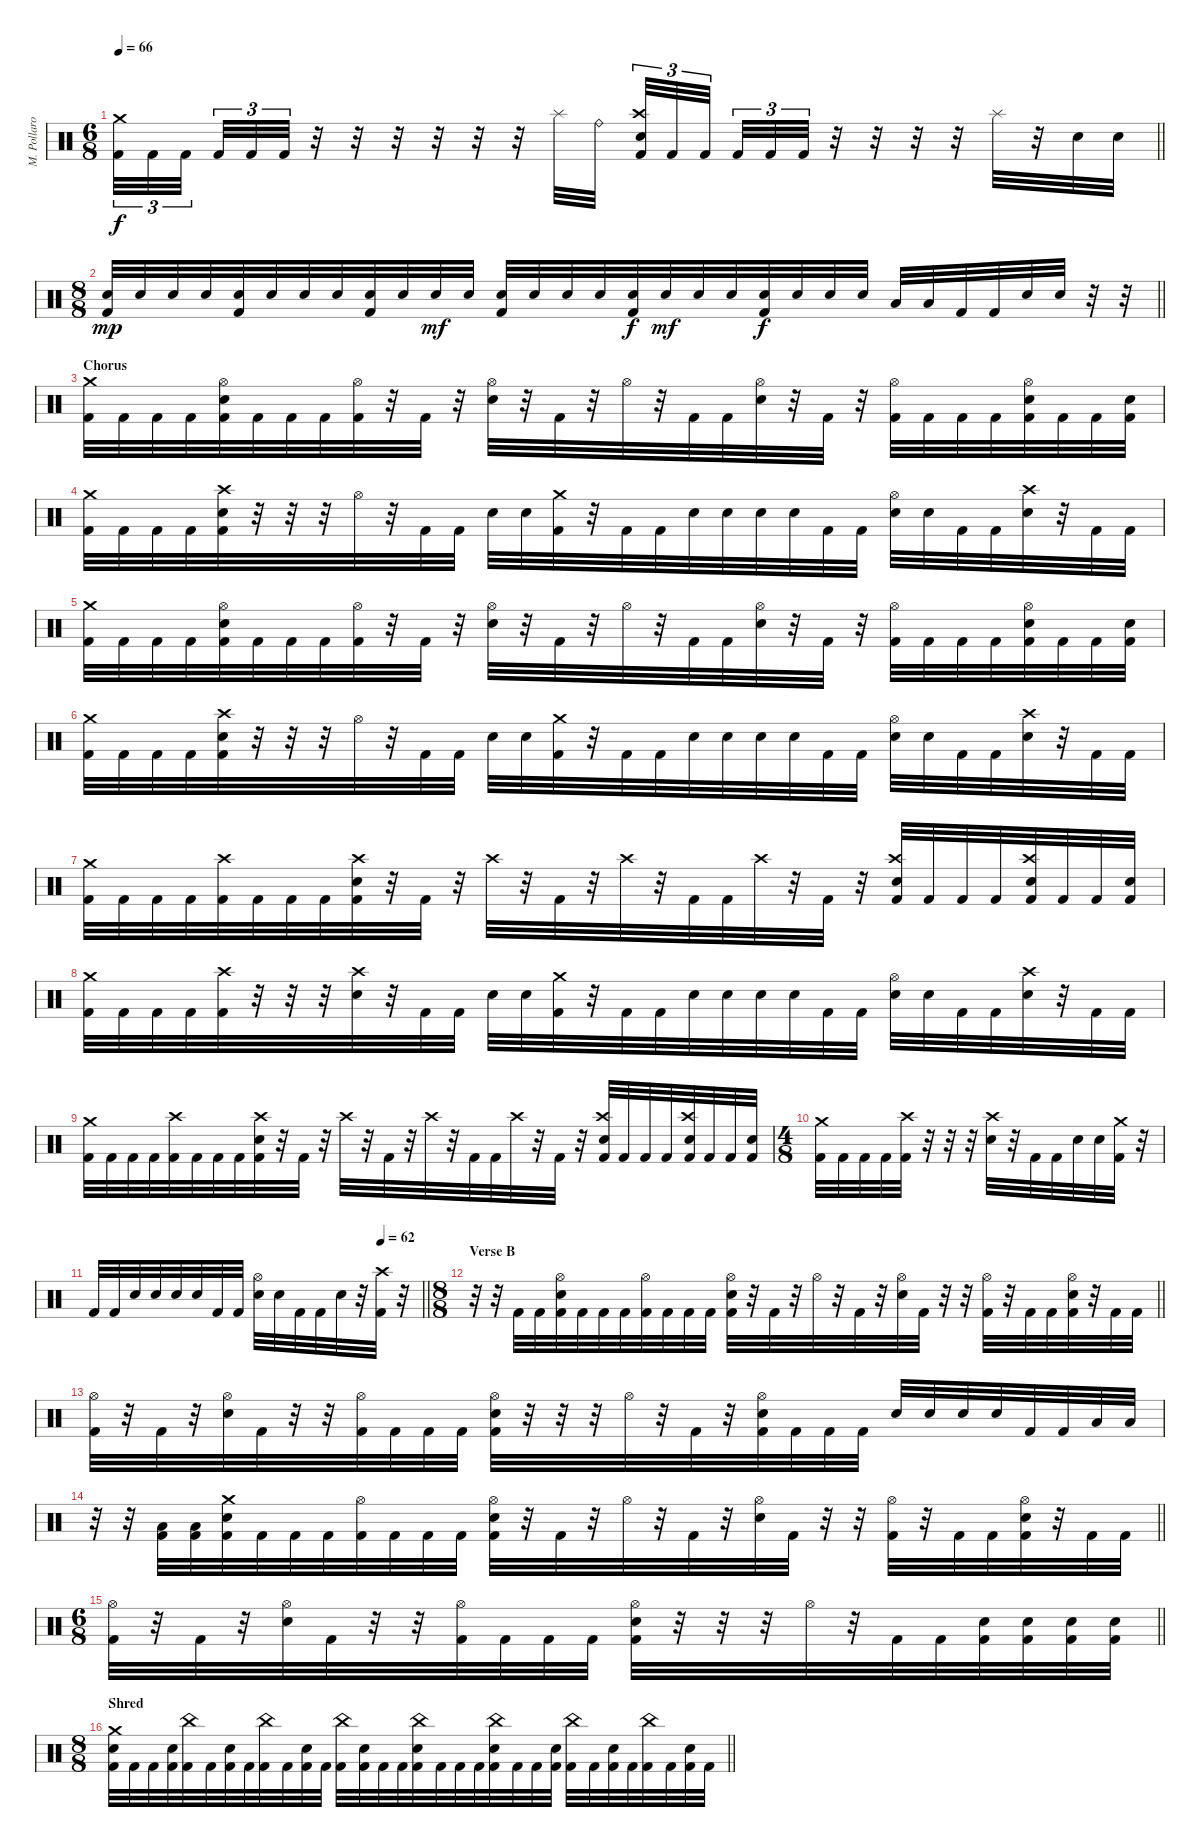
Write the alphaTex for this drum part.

\track ("M. Pollaro" "M. Pollaro") {instrument percussion}
\staff {score}
\articulation defaults
\ts (6 8)
\tempo 66
\clef neutral
\barLineRight lightlight
\ks aminor
("Crash medium (hit)" "Kick (hit) 2").32{tu (3 2) dy f} "Kick (hit) 2".32{tu (3 2)} "Kick (hit) 2".32{tu (3 2) beam splitsecondary} "Kick (hit) 2".32{tu (3 2)} "Kick (hit) 2".32{tu (3 2)} "Kick (hit) 2".32{tu (3 2)} r.32 r.32 r.32 r.32 r.32 r.32 "Splash (hit)".32 "Ride (bell)".32 ("Crash high (hit)" "Snare (hit) 2" "Kick (hit) 2").32{tu (3 2)} "Kick (hit) 2".32{tu (3 2)} "Kick (hit) 2".32{tu (3 2) beam splitsecondary} "Kick (hit) 2".32{tu (3 2)} "Kick (hit) 2".32{tu (3 2)} "Kick (hit) 2".32{tu (3 2)} r.32 r.32 r.32 r.32 "Splash (hit)".32 r.32 "Snare (hit) 2".32 "Snare (hit) 2".32 |
\ts (8 8)
\barLineRight lightlight
("Snare (hit) 2" "Kick (hit) 2").32{dy mp} "Snare (hit) 2".32 "Snare (hit) 2".32 "Snare (hit) 2".32 ("Snare (hit) 2" "Kick (hit) 2").32 "Snare (hit) 2".32 "Snare (hit) 2".32 "Snare (hit) 2".32 ("Snare (hit) 2" "Kick (hit) 2").32 "Snare (hit) 2".32 "Snare (hit) 2".32{dy mf} "Snare (hit) 2".32 ("Snare (hit) 2" "Kick (hit) 2").32 "Snare (hit) 2".32 "Snare (hit) 2".32 "Snare (hit) 2".32 ("Snare (hit) 2" "Kick (hit) 2").32{dy f} "Snare (hit) 2".32{dy mf} "Snare (hit) 2".32 "Snare (hit) 2".32 ("Snare (hit) 2" "Kick (hit) 2").32{dy f} "Snare (hit) 2".32 "Snare (hit) 2".32 "Snare (hit) 2".32 "Low Tom (hit)".32 "Low Tom (hit)".32 "Kick (hit) 2".32 "Kick (hit) 2".32 "Snare (hit) 2".32 "Snare (hit) 2".32 r.32 r.32 |
\section ("" "Chorus")
("Crash medium (hit)" "Kick (hit) 2").32 "Kick (hit) 2".32 "Kick (hit) 2".32 "Kick (hit) 2".32 ("Hi-Hat (open)" "Snare (hit) 2" "Kick (hit) 2").32 "Kick (hit) 2".32 "Kick (hit) 2".32 "Kick (hit) 2".32 ("Hi-Hat (open)" "Kick (hit) 2").32 r.32 "Kick (hit) 2".32 r.32 ("Hi-Hat (open)" "Snare (hit) 2").32 r.32 "Kick (hit) 2".32 r.32 "Hi-Hat (open)".32 r.32 "Kick (hit) 2".32 "Kick (hit) 2".32 ("Hi-Hat (open)" "Snare (hit) 2").32 r.32 "Kick (hit) 2".32 r.32 ("Hi-Hat (open)" "Kick (hit) 2").32 "Kick (hit) 2".32 "Kick (hit) 2".32 "Kick (hit) 2".32 ("Hi-Hat (open)" "Snare (hit) 2" "Kick (hit) 2").32 "Kick (hit) 2".32 "Kick (hit) 2".32 ("Snare (hit) 2" "Kick (hit) 2").32 |
("Crash medium (hit)" "Kick (hit) 2").32 "Kick (hit) 2".32 "Kick (hit) 2".32 "Kick (hit) 2".32 ("Crash high (hit)" "Snare (hit) 2" "Kick (hit) 2").32 r.32 r.32 r.32 "Hi-Hat (open)".32 r.32 "Kick (hit) 2".32 "Kick (hit) 2".32 "Snare (hit) 2".32 "Snare (hit) 2".32 ("Crash medium (hit)" "Kick (hit) 2").32 r.32 "Kick (hit) 2".32 "Kick (hit) 2".32 "Snare (hit) 2".32 "Snare (hit) 2".32 "Snare (hit) 2".32 "Snare (hit) 2".32 "Kick (hit) 2".32 "Kick (hit) 2".32 ("Hi-Hat (open)" "Snare (hit) 2").32 "Snare (hit) 2".32 "Kick (hit) 2".32 "Kick (hit) 2".32 ("Crash high (hit)" "Snare (hit) 2").32 r.32 "Kick (hit) 2".32 "Kick (hit) 2".32 |
("Crash medium (hit)" "Kick (hit) 2").32 "Kick (hit) 2".32 "Kick (hit) 2".32 "Kick (hit) 2".32 ("Hi-Hat (open)" "Snare (hit) 2" "Kick (hit) 2").32 "Kick (hit) 2".32 "Kick (hit) 2".32 "Kick (hit) 2".32 ("Hi-Hat (open)" "Kick (hit) 2").32 r.32 "Kick (hit) 2".32 r.32 ("Hi-Hat (open)" "Snare (hit) 2").32 r.32 "Kick (hit) 2".32 r.32 "Hi-Hat (open)".32 r.32 "Kick (hit) 2".32 "Kick (hit) 2".32 ("Hi-Hat (open)" "Snare (hit) 2").32 r.32 "Kick (hit) 2".32 r.32 ("Hi-Hat (open)" "Kick (hit) 2").32 "Kick (hit) 2".32 "Kick (hit) 2".32 "Kick (hit) 2".32 ("Hi-Hat (open)" "Snare (hit) 2" "Kick (hit) 2").32 "Kick (hit) 2".32 "Kick (hit) 2".32 ("Snare (hit) 2" "Kick (hit) 2").32 |
("Crash medium (hit)" "Kick (hit) 2").32 "Kick (hit) 2".32 "Kick (hit) 2".32 "Kick (hit) 2".32 ("Crash high (hit)" "Snare (hit) 2" "Kick (hit) 2").32 r.32 r.32 r.32 "Hi-Hat (open)".32 r.32 "Kick (hit) 2".32 "Kick (hit) 2".32 "Snare (hit) 2".32 "Snare (hit) 2".32 ("Crash medium (hit)" "Kick (hit) 2").32 r.32 "Kick (hit) 2".32 "Kick (hit) 2".32 "Snare (hit) 2".32 "Snare (hit) 2".32 "Snare (hit) 2".32 "Snare (hit) 2".32 "Kick (hit) 2".32 "Kick (hit) 2".32 ("Hi-Hat (open)" "Snare (hit) 2").32 "Snare (hit) 2".32 "Kick (hit) 2".32 "Kick (hit) 2".32 ("Crash high (hit)" "Snare (hit) 2").32 r.32 "Kick (hit) 2".32 "Kick (hit) 2".32 |
("Crash medium (hit)" "Kick (hit) 2").32 "Kick (hit) 2".32 "Kick (hit) 2".32 "Kick (hit) 2".32 ("Crash high (hit)" "Kick (hit) 2").32 "Kick (hit) 2".32 "Kick (hit) 2".32 "Kick (hit) 2".32 ("Crash high (hit)" "Snare (hit) 2" "Kick (hit) 2").32 r.32 "Kick (hit) 2".32 r.32 "Crash high (hit)".32 r.32 "Kick (hit) 2".32 r.32 "Crash high (hit)".32 r.32 "Kick (hit) 2".32 "Kick (hit) 2".32 "Crash high (hit)".32 r.32 "Kick (hit) 2".32 r.32 ("Crash high (hit)" "Snare (hit) 2" "Kick (hit) 2").32 "Kick (hit) 2".32 "Kick (hit) 2".32 "Kick (hit) 2".32 ("Crash high (hit)" "Snare (hit) 2" "Kick (hit) 2").32 "Kick (hit) 2".32 "Kick (hit) 2".32 ("Snare (hit) 2" "Kick (hit) 2").32 |
("Crash medium (hit)" "Kick (hit) 2").32 "Kick (hit) 2".32 "Kick (hit) 2".32 "Kick (hit) 2".32 ("Crash high (hit)" "Kick (hit) 2").32 r.32 r.32 r.32 ("Crash high (hit)" "Snare (hit) 2").32 r.32 "Kick (hit) 2".32 "Kick (hit) 2".32 "Snare (hit) 2".32 "Snare (hit) 2".32 ("Crash medium (hit)" "Kick (hit) 2").32 r.32 "Kick (hit) 2".32 "Kick (hit) 2".32 "Snare (hit) 2".32 "Snare (hit) 2".32 "Snare (hit) 2".32 "Snare (hit) 2".32 "Kick (hit) 2".32 "Kick (hit) 2".32 ("Hi-Hat (open)" "Snare (hit) 2").32 "Snare (hit) 2".32 "Kick (hit) 2".32 "Kick (hit) 2".32 ("Crash high (hit)" "Snare (hit) 2").32 r.32 "Kick (hit) 2".32 "Kick (hit) 2".32 |
("Crash medium (hit)" "Kick (hit) 2").32 "Kick (hit) 2".32 "Kick (hit) 2".32 "Kick (hit) 2".32 ("Crash high (hit)" "Kick (hit) 2").32 "Kick (hit) 2".32 "Kick (hit) 2".32 "Kick (hit) 2".32 ("Crash high (hit)" "Snare (hit) 2" "Kick (hit) 2").32 r.32 "Kick (hit) 2".32 r.32 "Crash high (hit)".32 r.32 "Kick (hit) 2".32 r.32 "Crash high (hit)".32 r.32 "Kick (hit) 2".32 "Kick (hit) 2".32 "Crash high (hit)".32 r.32 "Kick (hit) 2".32 r.32 ("Crash high (hit)" "Snare (hit) 2" "Kick (hit) 2").32 "Kick (hit) 2".32 "Kick (hit) 2".32 "Kick (hit) 2".32 ("Crash high (hit)" "Snare (hit) 2" "Kick (hit) 2").32 "Kick (hit) 2".32 "Kick (hit) 2".32 ("Snare (hit) 2" "Kick (hit) 2").32 |
\ts (4 8)
("Crash medium (hit)" "Kick (hit) 2").32 "Kick (hit) 2".32 "Kick (hit) 2".32 "Kick (hit) 2".32 ("Crash high (hit)" "Kick (hit) 2").32 r.32 r.32 r.32 ("Crash high (hit)" "Snare (hit) 2").32 r.32 "Kick (hit) 2".32 "Kick (hit) 2".32 "Snare (hit) 2".32 "Snare (hit) 2".32 ("Crash medium (hit)" "Kick (hit) 2").32 r.32 |
\tempo (62 0.875)
\barLineRight lightlight "Kick (hit) 2".32 "Kick (hit) 2".32 "Snare (hit) 2".32 "Snare (hit) 2".32 "Snare (hit) 2".32 "Snare (hit) 2".32 "Kick (hit) 2".32 "Kick (hit) 2".32
("Hi-Hat (open)" "Snare (hit) 2").32 "Snare (hit) 2".32 "Kick (hit) 2".32 "Kick (hit) 2".32 "Snare (hit) 2".32 r.32 ("Crash high (hit)" "Kick (hit) 2").32 r.32 |
\ts (8 8)
\section ("" "Verse B")
\barLineRight lightlight
r.32 r.32 "Kick (hit) 2".32 "Kick (hit) 2".32 ("Hi-Hat (open)" "Snare (hit) 2" "Kick (hit) 2").32 "Kick (hit) 2".32 "Kick (hit) 2".32 "Kick (hit) 2".32 ("Hi-Hat (open)" "Kick (hit) 2").32 "Kick (hit) 2".32 "Kick (hit) 2".32 "Kick (hit) 2".32 ("Hi-Hat (open)" "Snare (hit) 2" "Kick (hit) 2").32 r.32 "Kick (hit) 2".32 r.32 "Hi-Hat (open)".32 r.32 "Kick (hit) 2".32 r.32 ("Hi-Hat (open)" "Snare (hit) 2").32 "Kick (hit) 2".32 r.32 r.32 ("Hi-Hat (open)" "Kick (hit) 2").32 r.32 "Kick (hit) 2".32 "Kick (hit) 2".32 ("Hi-Hat (open)" "Snare (hit) 2" "Kick (hit) 2").32 r.32 "Kick (hit) 2".32 "Kick (hit) 2".32 |
("Hi-Hat (open)" "Kick (hit) 2").32 r.32 "Kick (hit) 2".32 r.32 ("Hi-Hat (open)" "Snare (hit) 2").32 "Kick (hit) 2".32 r.32 r.32 ("Hi-Hat (open)" "Kick (hit) 2").32 "Kick (hit) 2".32 "Kick (hit) 2".32 "Kick (hit) 2".32 ("Hi-Hat (open)" "Snare (hit) 2" "Kick (hit) 2").32 r.32 r.32 r.32 "Hi-Hat (open)".32 r.32 "Kick (hit) 2".32 r.32 ("Hi-Hat (open)" "Snare (hit) 2" "Kick (hit) 2").32 "Kick (hit) 2".32 "Kick (hit) 2".32 "Kick (hit) 2".32 "Snare (hit) 2".32 "Snare (hit) 2".32 "Snare (hit) 2".32 "Snare (hit) 2".32 "Kick (hit) 2".32 "Kick (hit) 2".32 "Low Tom (hit)".32 "Low Tom (hit)".32 |
\barLineRight lightlight
r.32 r.32 ("Low Tom (hit)" "Kick (hit) 2").32 ("Low Tom (hit)" "Kick (hit) 2").32 ("Crash medium (hit)" "Snare (hit) 2" "Kick (hit) 2").32 "Kick (hit) 2".32 "Kick (hit) 2".32 "Kick (hit) 2".32 ("Hi-Hat (open)" "Kick (hit) 2").32 "Kick (hit) 2".32 "Kick (hit) 2".32 "Kick (hit) 2".32 ("Hi-Hat (open)" "Snare (hit) 2" "Kick (hit) 2").32 r.32 "Kick (hit) 2".32 r.32 "Hi-Hat (open)".32 r.32 "Kick (hit) 2".32 r.32 ("Hi-Hat (open)" "Snare (hit) 2").32 "Kick (hit) 2".32 r.32 r.32 ("Hi-Hat (open)" "Kick (hit) 2").32 r.32 "Kick (hit) 2".32 "Kick (hit) 2".32 ("Hi-Hat (open)" "Snare (hit) 2" "Kick (hit) 2").32 r.32 "Kick (hit) 2".32 "Kick (hit) 2".32 |
\ts (6 8)
\barLineRight lightlight
("Hi-Hat (open)" "Kick (hit) 2").32 r.32 "Kick (hit) 2".32 r.32 ("Hi-Hat (open)" "Snare (hit) 2").32 "Kick (hit) 2".32 r.32 r.32 ("Hi-Hat (open)" "Kick (hit) 2").32 "Kick (hit) 2".32 "Kick (hit) 2".32 "Kick (hit) 2".32 ("Hi-Hat (open)" "Snare (hit) 2" "Kick (hit) 2").32 r.32 r.32 r.32 "Hi-Hat (open)".32 r.32 "Kick (hit) 2".32 "Kick (hit) 2".32 ("Snare (hit) 2" "Kick (hit) 2").32 ("Snare (hit) 2" "Kick (hit) 2").32 ("Snare (hit) 2" "Kick (hit) 2").32 ("Snare (hit) 2" "Kick (hit) 2").32 |
\ts (8 8)
\section ("" "Shred")
\barLineRight lightlight
("Crash medium (hit)" "Snare (hit) 2" "Kick (hit) 2").32 "Kick (hit) 2".32 "Kick (hit) 2".32 ("Snare (hit) 2" "Kick (hit) 2").32 ("China (hit)" "Kick (hit) 2").32 "Kick (hit) 2".32 ("Snare (hit) 2" "Kick (hit) 2").32 "Kick (hit) 2".32 ("China (hit)" "Kick (hit) 2").32 "Kick (hit) 2".32 ("Snare (hit) 2" "Kick (hit) 2").32 "Kick (hit) 2".32 ("China (hit)" "Kick (hit) 2").32 ("Snare (hit) 2" "Kick (hit) 2").32 "Kick (hit) 2".32 "Kick (hit) 2".32 ("China (hit)" "Snare (hit) 2" "Kick (hit) 2").32 "Kick (hit) 2".32 "Kick (hit) 2".32 "Kick (hit) 2".32 ("China (hit)" "Snare (hit) 2" "Kick (hit) 2").32 "Kick (hit) 2".32 "Kick (hit) 2".32 ("Snare (hit) 2" "Kick (hit) 2").32 ("China (hit)" "Kick (hit) 2").32 "Kick (hit) 2".32 ("Snare (hit) 2" "Kick (hit) 2").32 "Kick (hit) 2".32 ("China (hit)" "Kick (hit) 2").32 "Kick (hit) 2".32 ("Snare (hit) 2" "Kick (hit) 2").32 "Kick (hit) 2".32
